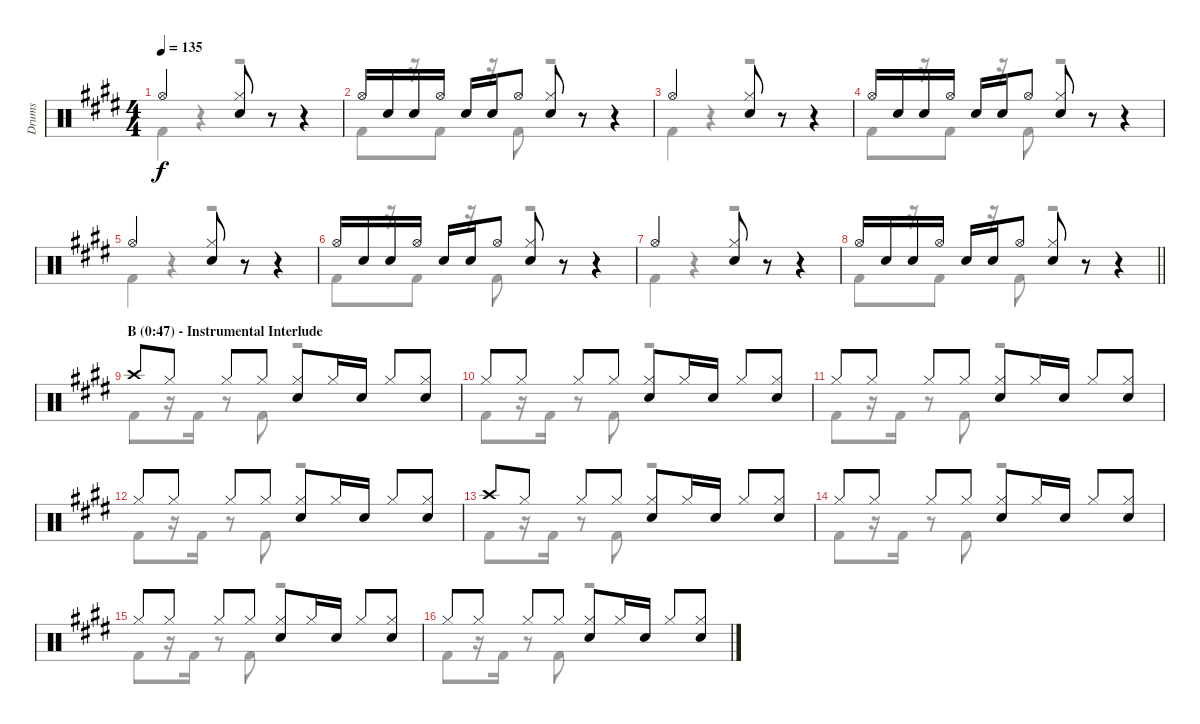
\track ("Drums" "Drums") {instrument percussion}
\staff {score}
\articulation defaults
\voice
\ts (4 4)
\tempo 135
\clef neutral
\ks c#minor "Hi-Hat (open)".2{dy f}
("Hi-Hat (closed)" "Snare (hit) 2").8 r.8 r.4 |
"Hi-Hat (open)".16 "Snare (hit) 2".16 "Snare (hit) 2".16 "Hi-Hat (open)".16 "Snare (hit) 2".16 "Snare (hit) 2".16 "Hi-Hat (open)".8 ("Hi-Hat (closed)" "Snare (hit) 2").8 r.8 r.4 |
"Hi-Hat (open)".2 ("Hi-Hat (closed)" "Snare (hit) 2").8 r.8 r.4 |
"Hi-Hat (open)".16 "Snare (hit) 2".16 "Snare (hit) 2".16 "Hi-Hat (open)".16 "Snare (hit) 2".16 "Snare (hit) 2".16 "Hi-Hat (open)".8 ("Hi-Hat (closed)" "Snare (hit) 2").8 r.8 r.4 |
"Hi-Hat (open)".2 ("Hi-Hat (closed)" "Snare (hit) 2").8 r.8 r.4 |
"Hi-Hat (open)".16 "Snare (hit) 2".16 "Snare (hit) 2".16 "Hi-Hat (open)".16 "Snare (hit) 2".16 "Snare (hit) 2".16 "Hi-Hat (open)".8 ("Hi-Hat (closed)" "Snare (hit) 2").8 r.8 r.4 |
"Hi-Hat (open)".2 ("Hi-Hat (closed)" "Snare (hit) 2").8 r.8 r.4 |
\barLineRight lightlight "Hi-Hat (open)".16 "Snare (hit) 2".16 "Snare (hit) 2".16 "Hi-Hat (open)".16 "Snare (hit) 2".16 "Snare (hit) 2".16 "Hi-Hat (open)".8
("Hi-Hat (closed)" "Snare (hit) 2").8 r.8 r.4 |
\section ("" "B (0:47) - Instrumental Interlude")
"Crash high (hit)".8 "Hi-Hat (closed)".8 "Hi-Hat (closed)".8 "Hi-Hat (closed)".8 ("Hi-Hat (closed)" "Snare (hit) 2").8 "Hi-Hat (closed)".16 "Snare (hit) 2".16 "Hi-Hat (closed)".8 ("Hi-Hat (closed)" "Snare (hit) 2").8 |
"Hi-Hat (closed)".8 "Hi-Hat (closed)".8 "Hi-Hat (closed)".8 "Hi-Hat (closed)".8 ("Hi-Hat (closed)" "Snare (hit) 2").8 "Hi-Hat (closed)".16 "Snare (hit) 2".16 "Hi-Hat (closed)".8 ("Hi-Hat (closed)" "Snare (hit) 2").8 |
"Hi-Hat (closed)".8 "Hi-Hat (closed)".8 "Hi-Hat (closed)".8 "Hi-Hat (closed)".8 ("Hi-Hat (closed)" "Snare (hit) 2").8 "Hi-Hat (closed)".16 "Snare (hit) 2".16 "Hi-Hat (closed)".8 ("Hi-Hat (closed)" "Snare (hit) 2").8 |
"Hi-Hat (closed)".8 "Hi-Hat (closed)".8 "Hi-Hat (closed)".8 "Hi-Hat (closed)".8 ("Hi-Hat (closed)" "Snare (hit) 2").8 "Hi-Hat (closed)".16 "Snare (hit) 2".16 "Hi-Hat (closed)".8 ("Hi-Hat (closed)" "Snare (hit) 2").8 |
"Crash high (hit)".8 "Hi-Hat (closed)".8 "Hi-Hat (closed)".8 "Hi-Hat (closed)".8 ("Hi-Hat (closed)" "Snare (hit) 2").8 "Hi-Hat (closed)".16 "Snare (hit) 2".16 "Hi-Hat (closed)".8 ("Hi-Hat (closed)" "Snare (hit) 2").8 |
"Hi-Hat (closed)".8 "Hi-Hat (closed)".8 "Hi-Hat (closed)".8 "Hi-Hat (closed)".8 ("Hi-Hat (closed)" "Snare (hit) 2").8 "Hi-Hat (closed)".16 "Snare (hit) 2".16 "Hi-Hat (closed)".8 ("Hi-Hat (closed)" "Snare (hit) 2").8 |
"Hi-Hat (closed)".8 "Hi-Hat (closed)".8 "Hi-Hat (closed)".8 "Hi-Hat (closed)".8 ("Hi-Hat (closed)" "Snare (hit) 2").8 "Hi-Hat (closed)".16 "Snare (hit) 2".16 "Hi-Hat (closed)".8 ("Hi-Hat (closed)" "Snare (hit) 2").8 |
"Hi-Hat (closed)".8 "Hi-Hat (closed)".8 "Hi-Hat (closed)".8 "Hi-Hat (closed)".8 ("Hi-Hat (closed)" "Snare (hit) 2").8 "Hi-Hat (closed)".16 "Snare (hit) 2".16 "Hi-Hat (closed)".8 ("Hi-Hat (closed)" "Snare (hit) 2").8
\voice
\clef neutral
\ottava regular
\simile none
\ks c#minor "Kick (hit) 2".4{dy f}
r.4 r.2 |
"Kick (hit) 2".8 r.16 "Kick (hit) 2".8 r.16 "Kick (hit) 2".8 r.2 |
"Kick (hit) 2".4 r.4 r.2 |
"Kick (hit) 2".8 r.16 "Kick (hit) 2".8 r.16 "Kick (hit) 2".8 r.2 |
"Kick (hit) 2".4 r.4 r.2 |
"Kick (hit) 2".8 r.16 "Kick (hit) 2".8 r.16 "Kick (hit) 2".8 r.2 |
"Kick (hit) 2".4 r.4 r.2 |
\barLineRight lightlight "Kick (hit) 2".8
r.16 "Kick (hit) 2".8 r.16 "Kick (hit) 2".8 r.2 |
"Kick (hit) 2".8 r.16 "Kick (hit) 2".16 r.8 "Kick (hit) 2".8 r.2 |
"Kick (hit) 2".8 r.16 "Kick (hit) 2".16 r.8 "Kick (hit) 2".8 r.2 |
"Kick (hit) 2".8 r.16 "Kick (hit) 2".16 r.8 "Kick (hit) 2".8 r.2 |
"Kick (hit) 2".8 r.16 "Kick (hit) 2".16 r.8 "Kick (hit) 2".8 r.2 |
"Kick (hit) 2".8 r.16 "Kick (hit) 2".16 r.8 "Kick (hit) 2".8 r.2 |
"Kick (hit) 2".8 r.16 "Kick (hit) 2".16 r.8 "Kick (hit) 2".8 r.2 |
"Kick (hit) 2".8 r.16 "Kick (hit) 2".16 r.8 "Kick (hit) 2".8 r.2 |
"Kick (hit) 2".8 r.16 "Kick (hit) 2".16 r.8 "Kick (hit) 2".8 r.2
